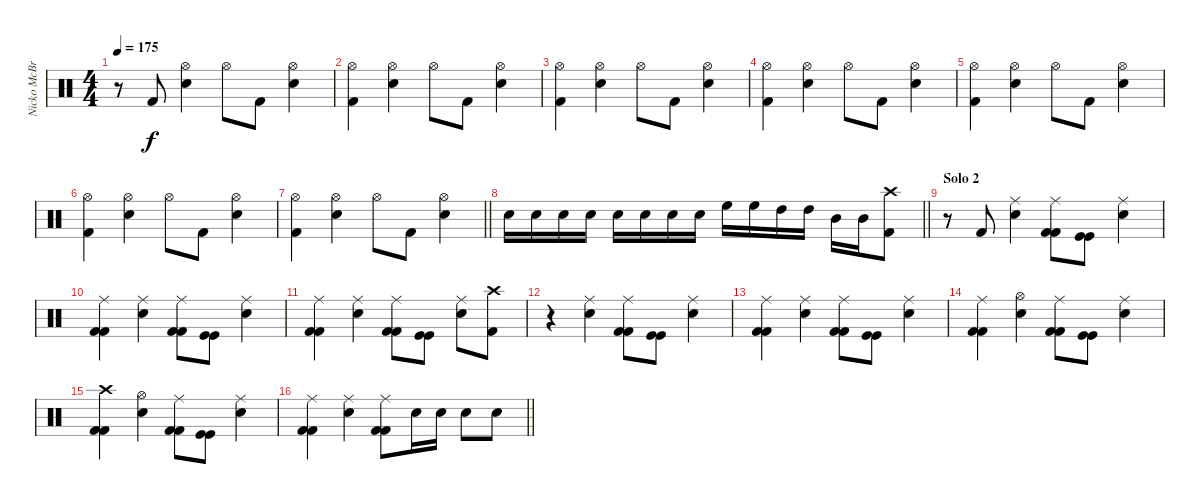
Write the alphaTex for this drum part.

\track ("Nicko McBrian" "Nicko McBr") {instrument percussion}
\staff {score}
\articulation defaults
\ts (4 4)
\tempo 175
\clef neutral
\ks c
r.8{dy f} "Kick (hit) 2".8 ("Hi-Hat (open)" "Snare (hit) 2").4 "Hi-Hat (open)".8 "Kick (hit) 2".8 ("Hi-Hat (open)" "Snare (hit) 2").4 |
("Hi-Hat (open)" "Kick (hit) 2").4 ("Hi-Hat (open)" "Snare (hit) 2").4 "Hi-Hat (open)".8 "Kick (hit) 2".8 ("Hi-Hat (open)" "Snare (hit) 2").4 |
("Hi-Hat (open)" "Kick (hit) 2").4 ("Hi-Hat (open)" "Snare (hit) 2").4 "Hi-Hat (open)".8 "Kick (hit) 2".8 ("Hi-Hat (open)" "Snare (hit) 2").4 |
("Hi-Hat (open)" "Kick (hit) 2").4 ("Hi-Hat (open)" "Snare (hit) 2").4 "Hi-Hat (open)".8 "Kick (hit) 2".8 ("Hi-Hat (open)" "Snare (hit) 2").4 |
("Hi-Hat (open)" "Kick (hit) 2").4 ("Hi-Hat (open)" "Snare (hit) 2").4 "Hi-Hat (open)".8 "Kick (hit) 2".8 ("Hi-Hat (open)" "Snare (hit) 2").4 |
("Hi-Hat (open)" "Kick (hit) 2").4 ("Hi-Hat (open)" "Snare (hit) 2").4 "Hi-Hat (open)".8 "Kick (hit) 2".8 ("Hi-Hat (open)" "Snare (hit) 2").4 |
\barLineRight lightlight
("Hi-Hat (open)" "Kick (hit) 2").4 ("Hi-Hat (open)" "Snare (hit) 2").4 "Hi-Hat (open)".8 "Kick (hit) 2".8 ("Hi-Hat (open)" "Snare (hit) 2").4 |
\barLineRight lightlight "Snare (hit) 2".16 "Snare (hit) 2".16 "Snare (hit) 2".16 "Snare (hit) 2".16 "Snare (hit) 2".16 "Snare (hit) 2".16 "Snare (hit) 2".16 "Snare (hit) 2".16 "High Floor Tom (hit)".16 "High Floor Tom (hit)".16 "High Tom (hit)".16 "High Tom (hit)".16 "Mid Tom (hit)".16 "Mid Tom (hit)".16
("Crash high (hit)" "Kick (hit) 2").8 |
\section ("" "Solo 2")
r.8 "Kick (hit) 2".8 ("Ride (middle)" "Snare (hit) 2").4 ("Ride (middle)" "Kick (hit) 2" "Kick (hit) 2").8 ("Kick (hit)" "Kick (hit)").8 ("Ride (middle)" "Snare (hit) 2").4 |
("Ride (middle)" "Kick (hit) 2" "Kick (hit) 2").4 ("Ride (middle)" "Snare (hit) 2").4 ("Ride (middle)" "Kick (hit) 2" "Kick (hit) 2").8 ("Kick (hit)" "Kick (hit)").8 ("Ride (middle)" "Snare (hit) 2").4 |
("Ride (middle)" "Kick (hit) 2" "Kick (hit) 2").4 ("Ride (middle)" "Snare (hit) 2").4 ("Ride (middle)" "Kick (hit) 2" "Kick (hit) 2").8 ("Kick (hit)" "Kick (hit)").8 ("Ride (middle)" "Snare (hit) 2").8 ("Crash high (hit)" "Kick (hit) 2").8 |
r.4 ("Ride (middle)" "Snare (hit) 2").4 ("Ride (middle)" "Kick (hit) 2" "Kick (hit) 2").8 ("Kick (hit)" "Kick (hit)").8 ("Ride (middle)" "Snare (hit) 2").4 |
("Ride (middle)" "Kick (hit) 2" "Kick (hit) 2").4 ("Ride (middle)" "Snare (hit) 2").4 ("Ride (middle)" "Kick (hit) 2" "Kick (hit) 2").8 ("Kick (hit)" "Kick (hit)").8 ("Ride (middle)" "Snare (hit) 2").4 |
("Ride (middle)" "Kick (hit) 2" "Kick (hit) 2").4 ("Hi-Hat (open)" "Snare (hit) 2").4 ("Ride (middle)" "Kick (hit) 2" "Kick (hit) 2").8 ("Kick (hit)" "Kick (hit)").8 ("Ride (middle)" "Snare (hit) 2").4 |
("Crash high (hit)" "Kick (hit) 2" "Kick (hit) 2").4 ("Hi-Hat (open)" "Snare (hit) 2").4 ("Ride (middle)" "Kick (hit) 2" "Kick (hit) 2").8 ("Kick (hit)" "Kick (hit)").8 ("Ride (middle)" "Snare (hit) 2").4 |
\barLineRight lightlight
("Ride (middle)" "Kick (hit) 2" "Kick (hit) 2").4 ("Ride (middle)" "Snare (hit) 2").4 ("Ride (middle)" "Kick (hit) 2" "Kick (hit) 2").8 "Snare (hit) 2".16 "Snare (hit) 2".16 "Snare (hit) 2".8 "Snare (hit) 2".8
